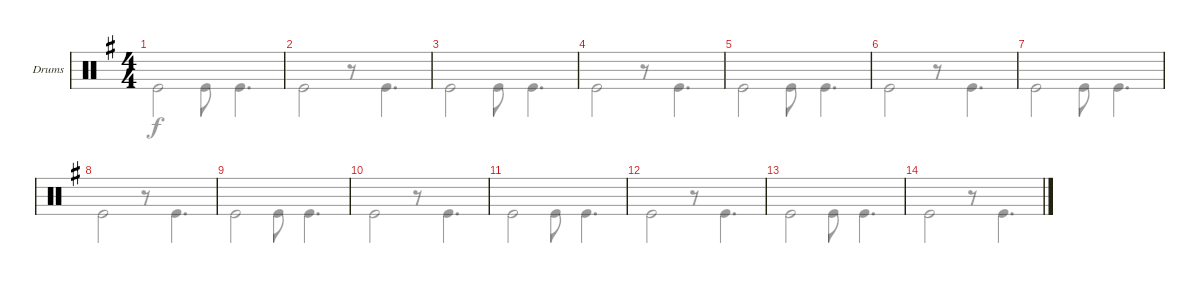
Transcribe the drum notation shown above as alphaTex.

\defaultSystemsLayout 4
\bracketExtendMode groupsimilarinstruments
\firstSystemTrackNameOrientation horizontal
\otherSystemsTrackNameOrientation horizontal
\track ("Drumkit" "Drums") {instrument percussion}
\staff {score}
\articulation defaults
\voice
\ts (4 4)
\tempo (120 hide)
\clef neutral
\scale
0.514894
\ks g
|
|
|
|
|
|
|
|
|
|
|
|
|
\voice
\clef neutral
\ottava regular
\simile none
\scale
0.514894
\ks g "Kick (hit)".2{dy f} "Kick (hit)".8 "Kick (hit)".4{d}
|
"Kick (hit)".2 r.8 "Kick (hit)".4{d} |
"Kick (hit)".2 "Kick (hit)".8 "Kick (hit)".4{d} |
"Kick (hit)".2 r.8 "Kick (hit)".4{d} |
"Kick (hit)".2 "Kick (hit)".8 "Kick (hit)".4{d} |
"Kick (hit)".2 r.8 "Kick (hit)".4{d} |
"Kick (hit)".2 "Kick (hit)".8 "Kick (hit)".4{d} |
"Kick (hit)".2 r.8 "Kick (hit)".4{d} |
"Kick (hit)".2 "Kick (hit)".8 "Kick (hit)".4{d} |
"Kick (hit)".2 r.8 "Kick (hit)".4{d} |
"Kick (hit)".2 "Kick (hit)".8 "Kick (hit)".4{d} |
"Kick (hit)".2 r.8 "Kick (hit)".4{d} |
"Kick (hit)".2 "Kick (hit)".8 "Kick (hit)".4{d} |
"Kick (hit)".2 r.8 "Kick (hit)".4{d}
